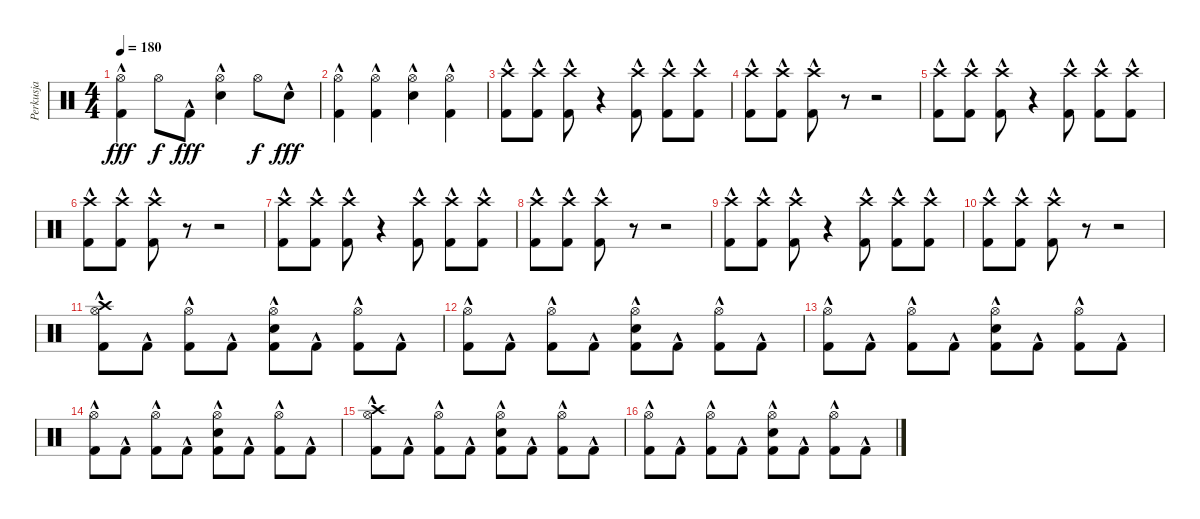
\track ("Perkusja" "Perkusja") {instrument percussion}
\staff {score}
\articulation defaults
\ts (4 4)
\tempo 180
\clef neutral
\ks c
("Hi-Hat (open)" "Kick (hit) 2"{hac}).4{dy fff} "Hi-Hat (open)".8{dy f} "Kick (hit) 2"{hac}.8{dy fff} ("Hi-Hat (open)" "Electric Snare (hit)"{hac}).4 "Hi-Hat (open)".8{dy f} "Electric Snare (hit)"{hac}.8{dy fff} |
("Hi-Hat (open)" "Kick (hit) 2"{hac}).4 ("Hi-Hat (open)" "Kick (hit) 2"{hac}).4 ("Hi-Hat (open)" "Electric Snare (hit)"{hac}).4 ("Hi-Hat (open)" "Kick (hit) 2"{hac}).4 |
("Crash high (hit)" "Kick (hit) 2"{hac}).8 ("Crash high (hit)" "Kick (hit) 2"{hac}).8 ("Crash high (hit)" "Kick (hit) 2"{hac}).8 r.4 ("Crash high (hit)" "Kick (hit) 2"{hac}).8 ("Crash high (hit)" "Kick (hit) 2"{hac}).8 ("Crash high (hit)" "Kick (hit) 2"{hac}).8 |
("Crash high (hit)" "Kick (hit) 2"{hac}).8 ("Crash high (hit)" "Kick (hit) 2"{hac}).8 ("Crash high (hit)" "Kick (hit) 2"{hac}).8 r.8 r.2 |
("Crash high (hit)" "Kick (hit) 2"{hac}).8 ("Crash high (hit)" "Kick (hit) 2"{hac}).8 ("Crash high (hit)" "Kick (hit) 2"{hac}).8 r.4 ("Crash high (hit)" "Kick (hit) 2"{hac}).8 ("Crash high (hit)" "Kick (hit) 2"{hac}).8 ("Crash high (hit)" "Kick (hit) 2"{hac}).8 |
("Crash high (hit)" "Kick (hit) 2"{hac}).8 ("Crash high (hit)" "Kick (hit) 2"{hac}).8 ("Crash high (hit)" "Kick (hit) 2"{hac}).8 r.8 r.2 |
("Crash high (hit)" "Kick (hit) 2"{hac}).8 ("Crash high (hit)" "Kick (hit) 2"{hac}).8 ("Crash high (hit)" "Kick (hit) 2"{hac}).8 r.4 ("Crash high (hit)" "Kick (hit) 2"{hac}).8 ("Crash high (hit)" "Kick (hit) 2"{hac}).8 ("Crash high (hit)" "Kick (hit) 2"{hac}).8 |
("Crash high (hit)" "Kick (hit) 2"{hac}).8 ("Crash high (hit)" "Kick (hit) 2"{hac}).8 ("Crash high (hit)" "Kick (hit) 2"{hac}).8 r.8 r.2 |
("Crash high (hit)" "Kick (hit) 2"{hac}).8 ("Crash high (hit)" "Kick (hit) 2"{hac}).8 ("Crash high (hit)" "Kick (hit) 2"{hac}).8 r.4 ("Crash high (hit)" "Kick (hit) 2"{hac}).8 ("Crash high (hit)" "Kick (hit) 2"{hac}).8 ("Crash high (hit)" "Kick (hit) 2"{hac}).8 |
("Crash high (hit)" "Kick (hit) 2"{hac}).8 ("Crash high (hit)" "Kick (hit) 2"{hac}).8 ("Crash high (hit)" "Kick (hit) 2"{hac}).8 r.8 r.2 |
("Crash high (hit)" "Hi-Hat (open)" "Kick (hit) 2"{hac}).8 "Kick (hit) 2"{hac}.8 ("Hi-Hat (open)" "Kick (hit) 2"{hac}).8 "Kick (hit) 2"{hac}.8 ("Hi-Hat (open)" "Electric Snare (hit)"{hac} "Kick (hit) 2"{hac}).8 "Kick (hit) 2"{hac}.8 ("Hi-Hat (open)" "Kick (hit) 2"{hac}).8 "Kick (hit) 2"{hac}.8 |
("Hi-Hat (open)" "Kick (hit) 2"{hac}).8 "Kick (hit) 2"{hac}.8 ("Hi-Hat (open)" "Kick (hit) 2"{hac}).8 "Kick (hit) 2"{hac}.8 ("Hi-Hat (open)" "Electric Snare (hit)"{hac} "Kick (hit) 2"{hac}).8 "Kick (hit) 2"{hac}.8 ("Hi-Hat (open)" "Kick (hit) 2"{hac}).8 "Kick (hit) 2"{hac}.8 |
("Hi-Hat (open)" "Kick (hit) 2"{hac}).8 "Kick (hit) 2"{hac}.8 ("Hi-Hat (open)" "Kick (hit) 2"{hac}).8 "Kick (hit) 2"{hac}.8 ("Hi-Hat (open)" "Electric Snare (hit)"{hac} "Kick (hit) 2"{hac}).8 "Kick (hit) 2"{hac}.8 ("Hi-Hat (open)" "Kick (hit) 2"{hac}).8 "Kick (hit) 2"{hac}.8 |
("Hi-Hat (open)" "Kick (hit) 2"{hac}).8 "Kick (hit) 2"{hac}.8 ("Hi-Hat (open)" "Kick (hit) 2"{hac}).8 "Kick (hit) 2"{hac}.8 ("Hi-Hat (open)" "Electric Snare (hit)"{hac} "Kick (hit) 2"{hac}).8 "Kick (hit) 2"{hac}.8 ("Hi-Hat (open)" "Kick (hit) 2"{hac}).8 "Kick (hit) 2"{hac}.8 |
("Crash high (hit)" "Hi-Hat (open)" "Kick (hit) 2"{hac}).8 "Kick (hit) 2"{hac}.8 ("Hi-Hat (open)" "Kick (hit) 2"{hac}).8 "Kick (hit) 2"{hac}.8 ("Hi-Hat (open)" "Electric Snare (hit)"{hac} "Kick (hit) 2"{hac}).8 "Kick (hit) 2"{hac}.8 ("Hi-Hat (open)" "Kick (hit) 2"{hac}).8 "Kick (hit) 2"{hac}.8 |
("Hi-Hat (open)" "Kick (hit) 2"{hac}).8 "Kick (hit) 2"{hac}.8 ("Hi-Hat (open)" "Kick (hit) 2"{hac}).8 "Kick (hit) 2"{hac}.8 ("Hi-Hat (open)" "Electric Snare (hit)"{hac} "Kick (hit) 2"{hac}).8 "Kick (hit) 2"{hac}.8 ("Hi-Hat (open)" "Kick (hit) 2"{hac}).8 "Kick (hit) 2"{hac}.8
